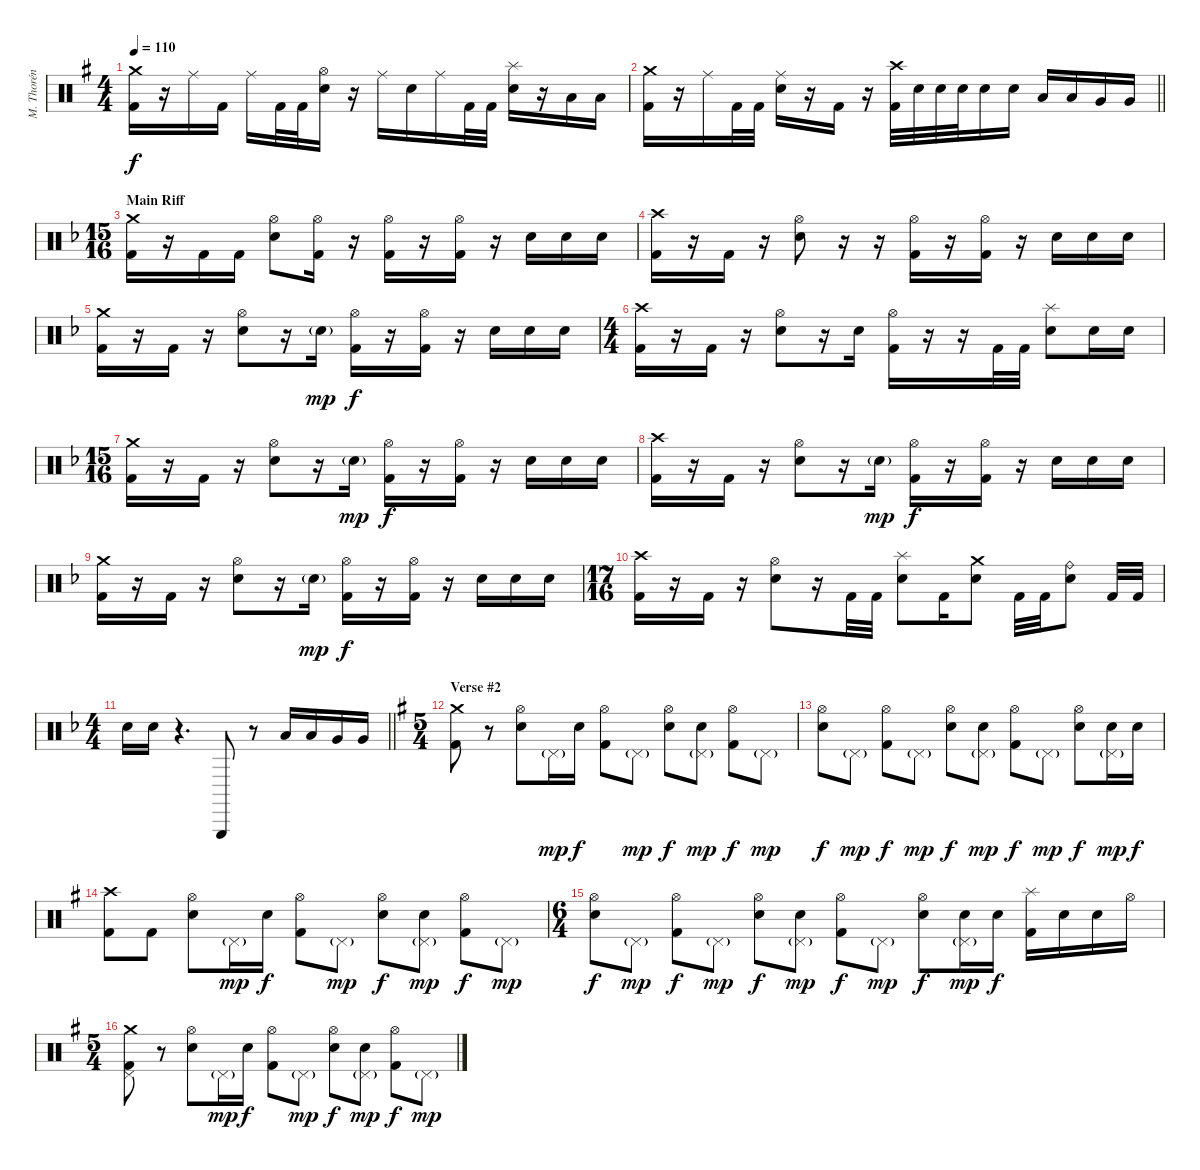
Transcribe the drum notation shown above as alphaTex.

\track ("M. Thorén (Drums)" "M. Thorén ") {instrument percussion}
\staff {score}
\articulation defaults
\ts (4 4)
\tempo 110
\clef neutral
\ks eminor
("Crash medium (hit)" "Kick (hit) 2").16{dy f} r.16 "Ride (middle)".16 "Kick (hit) 2".16 "Ride (middle)".16 "Kick (hit) 2".32 "Kick (hit) 2".32 ("Hi-Hat (open)" "Electric Snare (hit)").16 r.16 "Ride (middle)".16 "Electric Snare (hit)".16 "Ride (middle)".16 "Kick (hit) 2".32 "Kick (hit) 2".32 ("Splash (hit)" "Electric Snare (hit)").16 r.16 "Low Tom (hit)".16 "Low Tom (hit)".16 |
\barLineRight lightlight
("Crash medium (hit)" "Kick (hit) 2").16 r.16 "Ride (middle)".16 "Kick (hit) 2".32 "Kick (hit) 2".32 ("Ride (middle)" "Electric Snare (hit)").16 r.16 "Kick (hit) 2".16 r.16 ("Crash high (hit)" "Kick (hit) 2").32 "Electric Snare (hit)".32 "Electric Snare (hit)".32 "Electric Snare (hit)".32 "Electric Snare (hit)".16 "Electric Snare (hit)".16 "Low Tom (hit)".16 "Low Tom (hit)".16 "Very Low Tom (hit)".16 "Very Low Tom (hit)".16 |
\ts (15 16)
\section ("" "Main Riff")
\ks dminor
("Crash medium (hit)" "Kick (hit) 2").16 r.16 "Kick (hit) 2".16 "Kick (hit) 2".16 ("Hi-Hat (open)" "Electric Snare (hit)").8 ("Hi-Hat (open)" "Kick (hit) 2").16 r.16 ("Hi-Hat (open)" "Kick (hit) 2").16 r.16 ("Hi-Hat (open)" "Kick (hit) 2").16 r.16 "Electric Snare (hit)".16 "Electric Snare (hit)".16 "Electric Snare (hit)".16 |
("Crash high (hit)" "Kick (hit) 2").16 r.16 "Kick (hit) 2".16 r.16 ("Hi-Hat (open)" "Electric Snare (hit)").8 r.16 r.16 ("Hi-Hat (open)" "Kick (hit) 2").16 r.16 ("Hi-Hat (open)" "Kick (hit) 2").16 r.16 "Electric Snare (hit)".16 "Electric Snare (hit)".16 "Electric Snare (hit)".16 |
("Crash medium (hit)" "Kick (hit) 2").16 r.16 "Kick (hit) 2".16 r.16 ("Hi-Hat (open)" "Electric Snare (hit)").8 r.16 "Electric Snare (hit)"{g}.16{dy mp} ("Hi-Hat (open)" "Kick (hit) 2").16{dy f} r.16 ("Hi-Hat (open)" "Kick (hit) 2").16 r.16 "Electric Snare (hit)".16 "Electric Snare (hit)".16 "Electric Snare (hit)".16 |
\ts (4 4)
("Crash high (hit)" "Kick (hit) 2").16 r.16 "Kick (hit) 2".16 r.16 ("Hi-Hat (open)" "Electric Snare (hit)").8 r.16 "Electric Snare (hit)".16 ("Hi-Hat (open)" "Kick (hit) 2").16 r.16 r.16 "Kick (hit) 2".32 "Kick (hit) 2".32 ("Splash (hit)" "Electric Snare (hit)").8 "Electric Snare (hit)".16 "Electric Snare (hit)".16 |
\ts (15 16)
("Crash medium (hit)" "Kick (hit) 2").16 r.16 "Kick (hit) 2".16 r.16 ("Hi-Hat (open)" "Electric Snare (hit)").8 r.16 "Electric Snare (hit)"{g}.16{dy mp} ("Hi-Hat (open)" "Kick (hit) 2").16{dy f} r.16 ("Hi-Hat (open)" "Kick (hit) 2").16 r.16 "Electric Snare (hit)".16 "Electric Snare (hit)".16 "Electric Snare (hit)".16 |
("Crash high (hit)" "Kick (hit) 2").16 r.16 "Kick (hit) 2".16 r.16 ("Hi-Hat (open)" "Electric Snare (hit)").8 r.16 "Electric Snare (hit)"{g}.16{dy mp} ("Hi-Hat (open)" "Kick (hit) 2").16{dy f} r.16 ("Hi-Hat (open)" "Kick (hit) 2").16 r.16 "Electric Snare (hit)".16 "Electric Snare (hit)".16 "Electric Snare (hit)".16 |
("Crash medium (hit)" "Kick (hit) 2").16 r.16 "Kick (hit) 2".16 r.16 ("Hi-Hat (open)" "Electric Snare (hit)").8 r.16 "Electric Snare (hit)"{g}.16{dy mp} ("Hi-Hat (open)" "Kick (hit) 2").16{dy f} r.16 ("Hi-Hat (open)" "Kick (hit) 2").16 r.16 "Electric Snare (hit)".16 "Electric Snare (hit)".16 "Electric Snare (hit)".16 |
\ts (17 16)
("Crash high (hit)" "Kick (hit) 2").16 r.16 "Kick (hit) 2".16 r.16 ("Hi-Hat (open)" "Electric Snare (hit)").8 r.16 "Kick (hit) 2".32 "Kick (hit) 2".32 ("Splash (hit)" "Electric Snare (hit)").8 "Kick (hit) 2".16 ("Crash medium (hit)" "Electric Snare (hit)").8 "Kick (hit) 2".32 "Kick (hit) 2".32 ("Ride (bell)" "Electric Snare (hit)").8 "Kick (hit) 2".32 "Kick (hit) 2".32 |
\ts (4 4)
\barLineRight lightlight "Electric Snare (hit)".16 "Electric Snare (hit)".16
r.4{d} "Triangle (hit)".8 r.8 "Low Tom (hit)".16 "Low Tom (hit)".16 "Very Low Tom (hit)".16 "Very Low Tom (hit)".16 |
\ts (5 4)
\section ("" "Verse #2")
\ks eminor
("Crash medium (hit)" "Kick (hit) 2").8 r.8 ("Hi-Hat (open)" "Electric Snare (hit)").8 "Pedal Hi-Hat (hit)"{g}.16{dy mp} "Electric Snare (hit)".16{dy f} ("Hi-Hat (open)" "Kick (hit) 2").8 "Pedal Hi-Hat (hit)"{g}.8{dy mp} ("Hi-Hat (open)" "Electric Snare (hit)").8{dy f} ("Pedal Hi-Hat (hit)"{g} "Electric Snare (hit)").8{dy mp} ("Hi-Hat (open)" "Kick (hit) 2").8{dy f} "Pedal Hi-Hat (hit)"{g}.8{dy mp} |
("Hi-Hat (open)" "Electric Snare (hit)").8{dy f} "Pedal Hi-Hat (hit)"{g}.8{dy mp} ("Hi-Hat (open)" "Kick (hit) 2").8{dy f} "Pedal Hi-Hat (hit)"{g}.8{dy mp} ("Hi-Hat (open)" "Electric Snare (hit)").8{dy f} ("Pedal Hi-Hat (hit)"{g} "Electric Snare (hit)").8{dy mp} ("Hi-Hat (open)" "Kick (hit) 2").8{dy f} "Pedal Hi-Hat (hit)"{g}.8{dy mp} ("Hi-Hat (open)" "Electric Snare (hit)").8{dy f} ("Pedal Hi-Hat (hit)"{g} "Electric Snare (hit)").16{dy mp} "Electric Snare (hit)".16{dy f} |
("Crash high (hit)" "Kick (hit) 2").8 "Kick (hit) 2".8 ("Hi-Hat (open)" "Electric Snare (hit)").8 "Pedal Hi-Hat (hit)"{g}.16{dy mp} "Electric Snare (hit)".16{dy f} ("Hi-Hat (open)" "Kick (hit) 2").8 "Pedal Hi-Hat (hit)"{g}.8{dy mp} ("Hi-Hat (open)" "Electric Snare (hit)").8{dy f} ("Pedal Hi-Hat (hit)"{g} "Electric Snare (hit)").8{dy mp} ("Hi-Hat (open)" "Kick (hit) 2").8{dy f} "Pedal Hi-Hat (hit)"{g}.8{dy mp} |
\ts (6 4)
("Hi-Hat (open)" "Electric Snare (hit)").8{dy f} "Pedal Hi-Hat (hit)"{g}.8{dy mp} ("Hi-Hat (open)" "Kick (hit) 2").8{dy f} "Pedal Hi-Hat (hit)"{g}.8{dy mp} ("Hi-Hat (open)" "Electric Snare (hit)").8{dy f} ("Pedal Hi-Hat (hit)"{g} "Electric Snare (hit)").8{dy mp} ("Hi-Hat (open)" "Kick (hit) 2").8{dy f} "Pedal Hi-Hat (hit)"{g}.8{dy mp} ("Hi-Hat (open)" "Electric Snare (hit)").8{dy f} ("Pedal Hi-Hat (hit)"{g} "Electric Snare (hit)").16{dy mp} "Electric Snare (hit)".16{dy f} ("Splash (hit)" "Kick (hit) 2").16 "Electric Snare (hit)".16 "Electric Snare (hit)".16 "Hi-Hat (open)".16 |
\ts (5 4)
("Crash medium (hit)" "Pedal Hi-Hat (hit)" "Kick (hit) 2").8 r.8 ("Hi-Hat (open)" "Electric Snare (hit)").8 "Pedal Hi-Hat (hit)"{g}.16{dy mp} "Electric Snare (hit)".16{dy f} ("Hi-Hat (open)" "Kick (hit) 2").8 "Pedal Hi-Hat (hit)"{g}.8{dy mp} ("Hi-Hat (open)" "Electric Snare (hit)").8{dy f} ("Pedal Hi-Hat (hit)"{g} "Electric Snare (hit)").8{dy mp} ("Hi-Hat (open)" "Kick (hit) 2").8{dy f} "Pedal Hi-Hat (hit)"{g}.8{dy mp}
